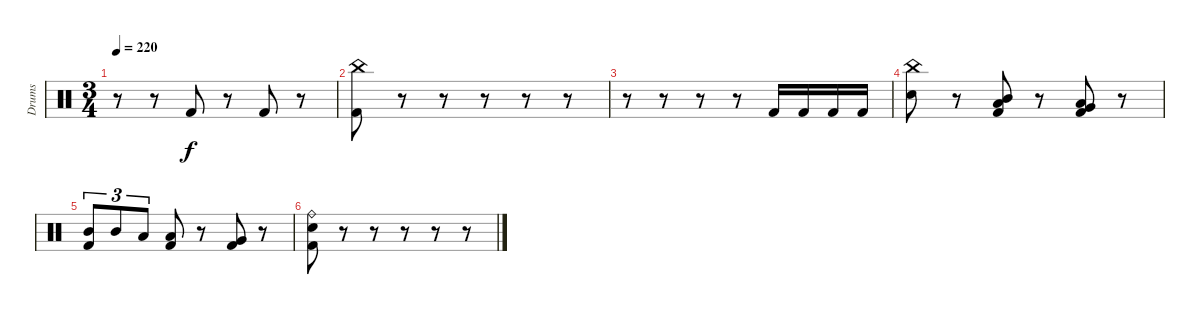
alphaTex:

\track ("Drums" "Drums") {instrument percussion}
\staff {score}
\articulation defaults
\ts (3 4)
\tempo 220
\clef neutral
\ks c
r.8{dy f} r.8 "Kick (hit) 2".8 r.8 "Kick (hit) 2".8 r.8 |
("China (hit)" "Kick (hit) 2").8 r.8 r.8 r.8 r.8 r.8 |
r.8 r.8 r.8 r.8 "Kick (hit) 2".16 "Kick (hit) 2".16 "Kick (hit) 2".16 "Kick (hit) 2".16 |
("China (hit)" "Electric Snare (hit)").8 r.8 ("Mid Tom (hit)" "Low Tom (hit)" "Kick (hit) 2").8 r.8 ("Low Tom (hit)" "Very Low Tom (hit)" "Kick (hit) 2").8 r.8 |
("Mid Tom (hit)" "Kick (hit) 2").8{tu (3 2)} "Mid Tom (hit)".8{tu (3 2)} "Low Tom (hit)".8{tu (3 2)} ("Low Tom (hit)" "Kick (hit) 2").8 r.8 ("Very Low Tom (hit)" "Kick (hit) 2").8 r.8 |
("Ride (bell)" "Electric Snare (hit)" "Kick (hit) 2").8 r.8 r.8 r.8 r.8 r.8
